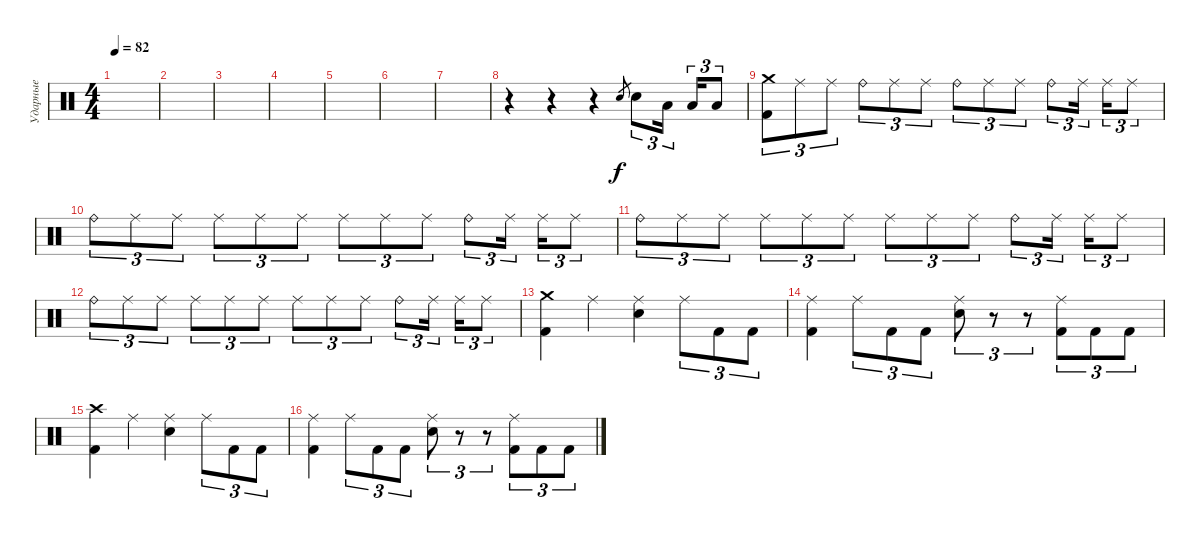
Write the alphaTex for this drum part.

\track ("Ударные" "Ударные") {instrument percussion}
\staff {score}
\articulation defaults
\ts (4 4)
\tempo 82
\clef neutral
\ks c
|
|
|
|
|
|
|
r.4 r.4 r.4 "Electric Snare (hit)".8{gr} "Electric Snare (hit)".8{tu (3 2)} "Low Tom (hit)".16{tu (3 2)} "Low Tom (hit)".16{tu (3 2)} "Low Tom (hit)".8{tu (3 2)} |
("Crash medium (hit)" "Kick (hit) 2").8{tu (3 2)} "Ride (middle)".8{tu (3 2)} "Ride (middle)".8{tu (3 2)} "Ride (bell)".8{tu (3 2)} "Ride (middle)".8{tu (3 2)} "Ride (middle)".8{tu (3 2)} "Ride (bell)".8{tu (3 2)} "Ride (middle)".8{tu (3 2)} "Ride (middle)".8{tu (3 2)} "Ride (bell)".8{tu (3 2)} "Ride (middle)".16{tu (3 2)} "Ride (middle)".16{tu (3 2)} "Ride (middle)".8{tu (3 2)} |
"Ride (bell)".8{tu (3 2)} "Ride (middle)".8{tu (3 2)} "Ride (middle)".8{tu (3 2)} "Ride (middle)".8{tu (3 2)} "Ride (middle)".8{tu (3 2)} "Ride (middle)".8{tu (3 2)} "Ride (middle)".8{tu (3 2)} "Ride (middle)".8{tu (3 2)} "Ride (middle)".8{tu (3 2)} "Ride (bell)".8{tu (3 2)} "Ride (middle)".16{tu (3 2)} "Ride (middle)".16{tu (3 2)} "Ride (middle)".8{tu (3 2)} |
"Ride (bell)".8{tu (3 2)} "Ride (middle)".8{tu (3 2)} "Ride (middle)".8{tu (3 2)} "Ride (middle)".8{tu (3 2)} "Ride (middle)".8{tu (3 2)} "Ride (middle)".8{tu (3 2)} "Ride (middle)".8{tu (3 2)} "Ride (middle)".8{tu (3 2)} "Ride (middle)".8{tu (3 2)} "Ride (bell)".8{tu (3 2)} "Ride (middle)".16{tu (3 2)} "Ride (middle)".16{tu (3 2)} "Ride (middle)".8{tu (3 2)} |
"Ride (bell)".8{tu (3 2)} "Ride (middle)".8{tu (3 2)} "Ride (middle)".8{tu (3 2)} "Ride (middle)".8{tu (3 2)} "Ride (middle)".8{tu (3 2)} "Ride (middle)".8{tu (3 2)} "Ride (middle)".8{tu (3 2)} "Ride (middle)".8{tu (3 2)} "Ride (middle)".8{tu (3 2)} "Ride (bell)".8{tu (3 2)} "Ride (middle)".16{tu (3 2)} "Ride (middle)".16{tu (3 2)} "Ride (middle)".8{tu (3 2)} |
("Crash medium (hit)" "Kick (hit) 2").4 "Ride (middle)".4 ("Ride (middle)" "Electric Snare (hit)").4 "Ride (middle)".8{tu (3 2)} "Kick (hit) 2".8{tu (3 2)} "Kick (hit) 2".8{tu (3 2)} |
("Ride (middle)" "Kick (hit) 2").4 "Ride (middle)".8{tu (3 2)} "Kick (hit) 2".8{tu (3 2)} "Kick (hit) 2".8{tu (3 2)} ("Ride (middle)" "Electric Snare (hit)").8{tu (3 2)} r.8{tu (3 2)} r.8{tu (3 2)} ("Ride (middle)" "Kick (hit) 2").8{tu (3 2)} "Kick (hit) 2".8{tu (3 2)} "Kick (hit) 2".8{tu (3 2)} |
("Crash high (hit)" "Kick (hit) 2").4 "Ride (middle)".4 ("Ride (middle)" "Electric Snare (hit)").4 "Ride (middle)".8{tu (3 2)} "Kick (hit) 2".8{tu (3 2)} "Kick (hit) 2".8{tu (3 2)} |
("Ride (middle)" "Kick (hit) 2").4 "Ride (middle)".8{tu (3 2)} "Kick (hit) 2".8{tu (3 2)} "Kick (hit) 2".8{tu (3 2)} ("Ride (middle)" "Electric Snare (hit)").8{tu (3 2)} r.8{tu (3 2)} r.8{tu (3 2)} ("Ride (middle)" "Kick (hit) 2").8{tu (3 2)} "Kick (hit) 2".8{tu (3 2)} "Kick (hit) 2".8{tu (3 2)}
